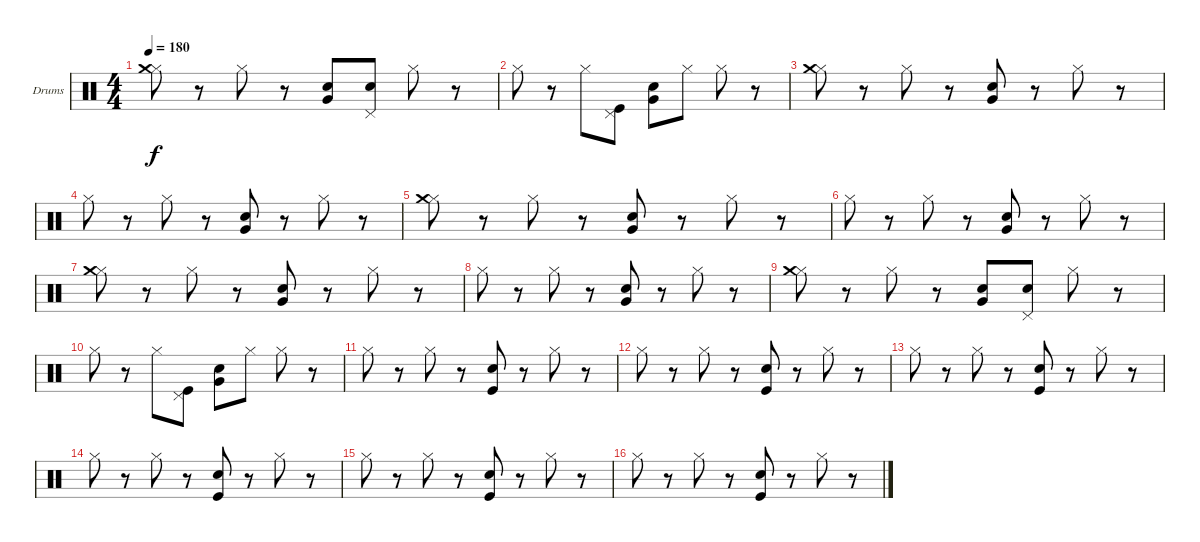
\bracketExtendMode groupsimilarinstruments
\firstSystemTrackNameOrientation horizontal
\otherSystemsTrackNameOrientation horizontal
\track ("Drumkit" "Drums") {instrument percussion}
\staff {score}
\articulation defaults
\ts (4 4)
\tempo 180
\clef neutral
\ks c
("Hi-Hat (closed)" "Crash medium (hit)").8{dy f} r.8 "Hi-Hat (closed)".8 r.8 ("Snare (hit) 2" "Very Low Tom (hit)").8 ("Snare (hit) 2" "Pedal Hi-Hat (hit)").8 "Hi-Hat (closed)".8 r.8 |
"Hi-Hat (closed)".8 r.8 "Hi-Hat (closed)".8 ("Pedal Hi-Hat (hit)" "Kick (hit)").8 ("Snare (hit) 2" "Very Low Tom (hit)").8 "Hi-Hat (closed)".8 "Hi-Hat (closed)".8 r.8 |
("Hi-Hat (closed)" "Crash medium (hit)").8 r.8 "Hi-Hat (closed)".8 r.8 ("Snare (hit) 2" "Very Low Tom (hit)").8 r.8 "Hi-Hat (closed)".8 r.8 |
"Hi-Hat (closed)".8 r.8 "Hi-Hat (closed)".8 r.8 ("Snare (hit) 2" "Very Low Tom (hit)").8 r.8 "Hi-Hat (closed)".8 r.8 |
("Hi-Hat (closed)" "Crash medium (hit)").8 r.8 "Hi-Hat (closed)".8 r.8 ("Snare (hit) 2" "Very Low Tom (hit)").8 r.8 "Hi-Hat (closed)".8 r.8 |
"Hi-Hat (closed)".8 r.8 "Hi-Hat (closed)".8 r.8 ("Snare (hit) 2" "Very Low Tom (hit)").8 r.8 "Hi-Hat (closed)".8 r.8 |
("Hi-Hat (closed)" "Crash medium (hit)").8 r.8 "Hi-Hat (closed)".8 r.8 ("Snare (hit) 2" "Very Low Tom (hit)").8 r.8 "Hi-Hat (closed)".8 r.8 |
"Hi-Hat (closed)".8 r.8 "Hi-Hat (closed)".8 r.8 ("Snare (hit) 2" "Very Low Tom (hit)").8 r.8 "Hi-Hat (closed)".8 r.8 |
("Hi-Hat (closed)" "Crash medium (hit)").8 r.8 "Hi-Hat (closed)".8 r.8 ("Snare (hit) 2" "Very Low Tom (hit)").8 ("Snare (hit) 2" "Pedal Hi-Hat (hit)").8 "Hi-Hat (closed)".8 r.8 |
"Hi-Hat (closed)".8 r.8 "Hi-Hat (closed)".8 ("Pedal Hi-Hat (hit)" "Kick (hit)").8 ("Snare (hit) 2" "Very Low Tom (hit)").8 "Hi-Hat (closed)".8 "Hi-Hat (closed)".8 r.8 |
"Hi-Hat (closed)".8 r.8 "Hi-Hat (closed)".8 r.8 ("Snare (hit) 2" "Kick (hit)").8 r.8 "Hi-Hat (closed)".8 r.8 |
"Hi-Hat (closed)".8 r.8 "Hi-Hat (closed)".8 r.8 ("Snare (hit) 2" "Kick (hit)").8 r.8 "Hi-Hat (closed)".8 r.8 |
"Hi-Hat (closed)".8 r.8 "Hi-Hat (closed)".8 r.8 ("Snare (hit) 2" "Kick (hit)").8 r.8 "Hi-Hat (closed)".8 r.8 |
"Hi-Hat (closed)".8 r.8 "Hi-Hat (closed)".8 r.8 ("Snare (hit) 2" "Kick (hit)").8 r.8 "Hi-Hat (closed)".8 r.8 |
"Hi-Hat (closed)".8 r.8 "Hi-Hat (closed)".8 r.8 ("Snare (hit) 2" "Kick (hit)").8 r.8 "Hi-Hat (closed)".8 r.8 |
"Hi-Hat (closed)".8 r.8 "Hi-Hat (closed)".8 r.8 ("Snare (hit) 2" "Kick (hit)").8 r.8 "Hi-Hat (closed)".8 r.8
